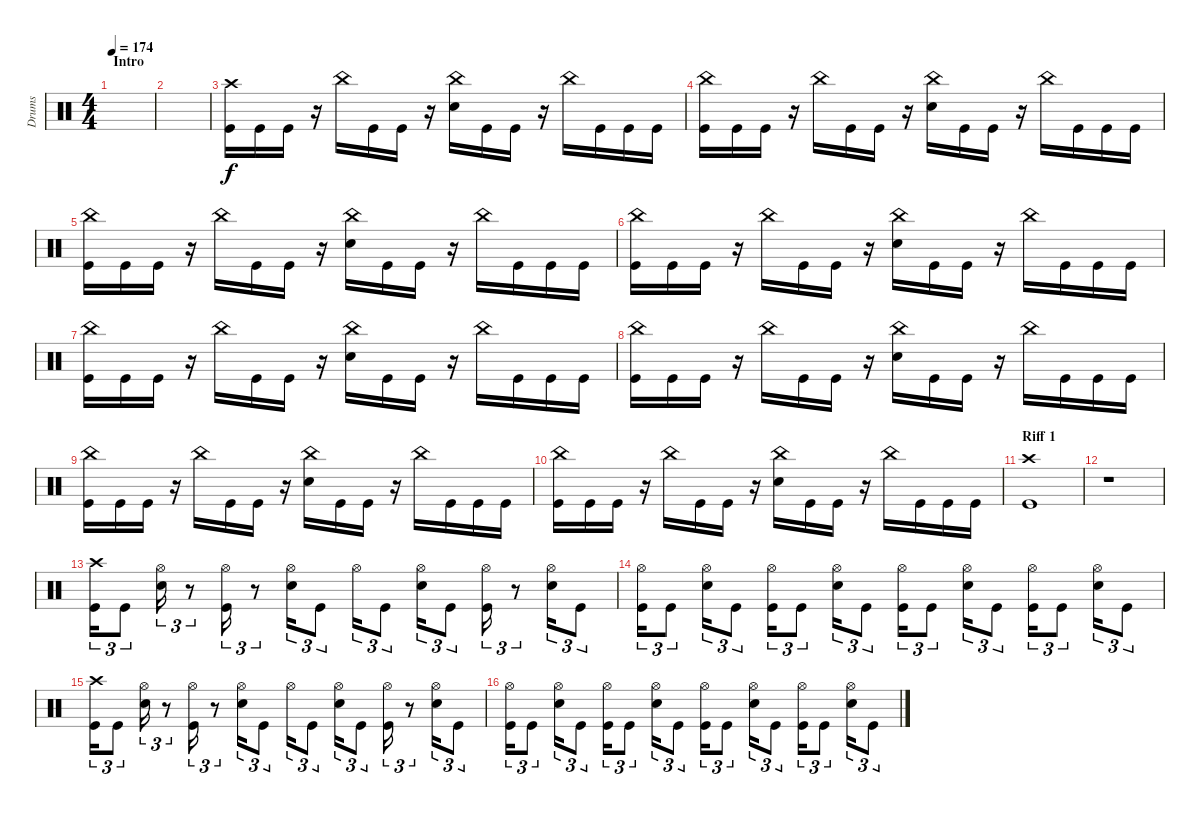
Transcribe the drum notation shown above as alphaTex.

\track ("Drums" "Drums") {instrument percussion}
\staff {score}
\articulation defaults
\ts (4 4)
\section ("" "Intro")
\tempo 174
\clef neutral
\ks c
|
|
("Crash high (hit)" "Kick (hit)").16 "Kick (hit)".16 "Kick (hit)".16 r.16 "China (hit)".16 "Kick (hit)".16 "Kick (hit)".16 r.16 ("China (hit)" "Electric Snare (hit)").16 "Kick (hit)".16 "Kick (hit)".16 r.16 "China (hit)".16 "Kick (hit)".16 "Kick (hit)".16 "Kick (hit)".16 |
("China (hit)" "Kick (hit)").16 "Kick (hit)".16 "Kick (hit)".16 r.16 "China (hit)".16 "Kick (hit)".16 "Kick (hit)".16 r.16 ("China (hit)" "Electric Snare (hit)").16 "Kick (hit)".16 "Kick (hit)".16 r.16 "China (hit)".16 "Kick (hit)".16 "Kick (hit)".16 "Kick (hit)".16 |
("China (hit)" "Kick (hit)").16 "Kick (hit)".16 "Kick (hit)".16 r.16 "China (hit)".16 "Kick (hit)".16 "Kick (hit)".16 r.16 ("China (hit)" "Electric Snare (hit)").16 "Kick (hit)".16 "Kick (hit)".16 r.16 "China (hit)".16 "Kick (hit)".16 "Kick (hit)".16 "Kick (hit)".16 |
("China (hit)" "Kick (hit)").16 "Kick (hit)".16 "Kick (hit)".16 r.16 "China (hit)".16 "Kick (hit)".16 "Kick (hit)".16 r.16 ("China (hit)" "Electric Snare (hit)").16 "Kick (hit)".16 "Kick (hit)".16 r.16 "China (hit)".16 "Kick (hit)".16 "Kick (hit)".16 "Kick (hit)".16 |
("China (hit)" "Kick (hit)").16 "Kick (hit)".16 "Kick (hit)".16 r.16 "China (hit)".16 "Kick (hit)".16 "Kick (hit)".16 r.16 ("China (hit)" "Electric Snare (hit)").16 "Kick (hit)".16 "Kick (hit)".16 r.16 "China (hit)".16 "Kick (hit)".16 "Kick (hit)".16 "Kick (hit)".16 |
("China (hit)" "Kick (hit)").16 "Kick (hit)".16 "Kick (hit)".16 r.16 "China (hit)".16 "Kick (hit)".16 "Kick (hit)".16 r.16 ("China (hit)" "Electric Snare (hit)").16 "Kick (hit)".16 "Kick (hit)".16 r.16 "China (hit)".16 "Kick (hit)".16 "Kick (hit)".16 "Kick (hit)".16 |
("China (hit)" "Kick (hit)").16 "Kick (hit)".16 "Kick (hit)".16 r.16 "China (hit)".16 "Kick (hit)".16 "Kick (hit)".16 r.16 ("China (hit)" "Electric Snare (hit)").16 "Kick (hit)".16 "Kick (hit)".16 r.16 "China (hit)".16 "Kick (hit)".16 "Kick (hit)".16 "Kick (hit)".16 |
("China (hit)" "Kick (hit)").16 "Kick (hit)".16 "Kick (hit)".16 r.16 "China (hit)".16 "Kick (hit)".16 "Kick (hit)".16 r.16 ("China (hit)" "Electric Snare (hit)").16 "Kick (hit)".16 "Kick (hit)".16 r.16 "China (hit)".16 "Kick (hit)".16 "Kick (hit)".16 "Kick (hit)".16 |
\section ("" "Riff 1")
("Crash high (hit)" "Kick (hit)").1 |
r.1 |
("Crash high (hit)" "Kick (hit)").16{tu (3 2)} "Kick (hit)".8{tu (3 2)} ("Hi-Hat (open)" "Electric Snare (hit)").16{tu (3 2)} r.8{tu (3 2)} ("Hi-Hat (open)" "Kick (hit)").16{tu (3 2)} r.8{tu (3 2)} ("Hi-Hat (open)" "Electric Snare (hit)").16{tu (3 2)} "Kick (hit)".8{tu (3 2)} "Hi-Hat (open)".16{tu (3 2)} "Kick (hit)".8{tu (3 2)} ("Hi-Hat (open)" "Electric Snare (hit)").16{tu (3 2)} "Kick (hit)".8{tu (3 2)} ("Hi-Hat (open)" "Kick (hit)").16{tu (3 2)} r.8{tu (3 2)} ("Hi-Hat (open)" "Electric Snare (hit)").16{tu (3 2)} "Kick (hit)".8{tu (3 2)} |
("Hi-Hat (open)" "Kick (hit)").16{tu (3 2)} "Kick (hit)".8{tu (3 2)} ("Hi-Hat (open)" "Electric Snare (hit)").16{tu (3 2)} "Kick (hit)".8{tu (3 2)} ("Hi-Hat (open)" "Kick (hit)").16{tu (3 2)} "Kick (hit)".8{tu (3 2)} ("Hi-Hat (open)" "Electric Snare (hit)").16{tu (3 2)} "Kick (hit)".8{tu (3 2)} ("Hi-Hat (open)" "Kick (hit)").16{tu (3 2)} "Kick (hit)".8{tu (3 2)} ("Hi-Hat (open)" "Electric Snare (hit)").16{tu (3 2)} "Kick (hit)".8{tu (3 2)} ("Hi-Hat (open)" "Kick (hit)").16{tu (3 2)} "Kick (hit)".8{tu (3 2)} ("Hi-Hat (open)" "Electric Snare (hit)").16{tu (3 2)} "Kick (hit)".8{tu (3 2)} |
("Crash high (hit)" "Kick (hit)").16{tu (3 2)} "Kick (hit)".8{tu (3 2)} ("Hi-Hat (open)" "Electric Snare (hit)").16{tu (3 2)} r.8{tu (3 2)} ("Hi-Hat (open)" "Kick (hit)").16{tu (3 2)} r.8{tu (3 2)} ("Hi-Hat (open)" "Electric Snare (hit)").16{tu (3 2)} "Kick (hit)".8{tu (3 2)} "Hi-Hat (open)".16{tu (3 2)} "Kick (hit)".8{tu (3 2)} ("Hi-Hat (open)" "Electric Snare (hit)").16{tu (3 2)} "Kick (hit)".8{tu (3 2)} ("Hi-Hat (open)" "Kick (hit)").16{tu (3 2)} r.8{tu (3 2)} ("Hi-Hat (open)" "Electric Snare (hit)").16{tu (3 2)} "Kick (hit)".8{tu (3 2)} |
("Hi-Hat (open)" "Kick (hit)").16{tu (3 2)} "Kick (hit)".8{tu (3 2)} ("Hi-Hat (open)" "Electric Snare (hit)").16{tu (3 2)} "Kick (hit)".8{tu (3 2)} ("Hi-Hat (open)" "Kick (hit)").16{tu (3 2)} "Kick (hit)".8{tu (3 2)} ("Hi-Hat (open)" "Electric Snare (hit)").16{tu (3 2)} "Kick (hit)".8{tu (3 2)} ("Hi-Hat (open)" "Kick (hit)").16{tu (3 2)} "Kick (hit)".8{tu (3 2)} ("Hi-Hat (open)" "Electric Snare (hit)").16{tu (3 2)} "Kick (hit)".8{tu (3 2)} ("Hi-Hat (open)" "Kick (hit)").16{tu (3 2)} "Kick (hit)".8{tu (3 2)} ("Hi-Hat (open)" "Electric Snare (hit)").16{tu (3 2)} "Kick (hit)".8{tu (3 2)}
